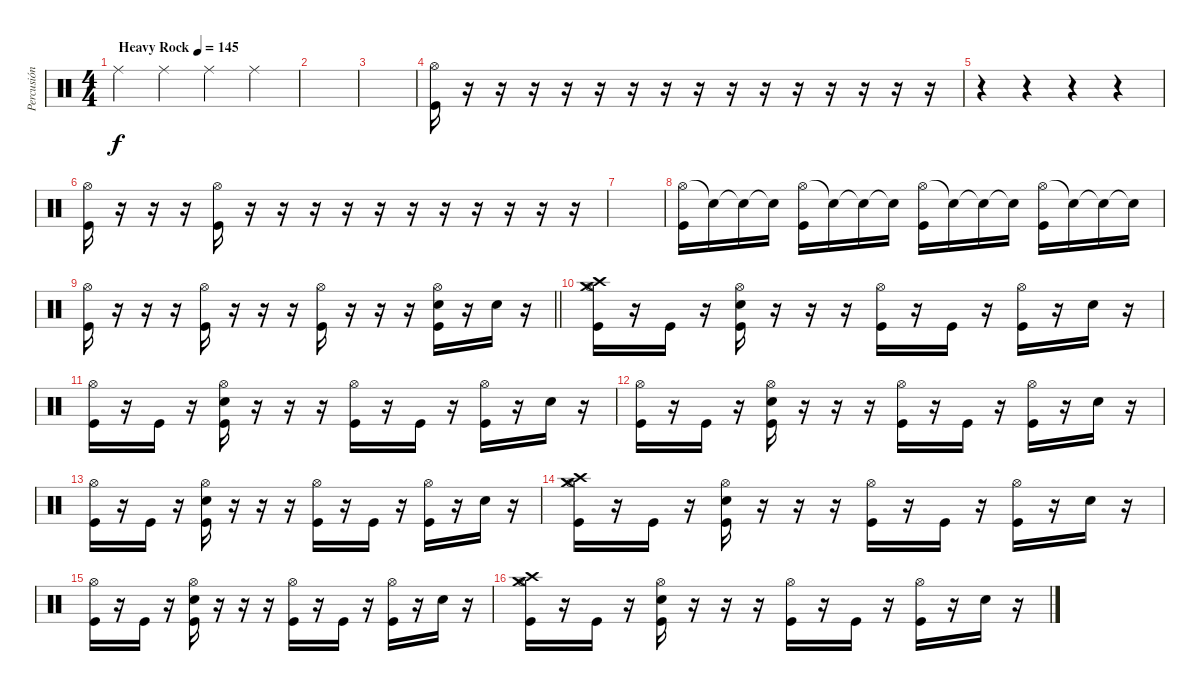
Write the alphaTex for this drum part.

\track ("Percusión" "Percusión") {instrument percussion}
\staff {score}
\articulation defaults
\ts (4 4)
\tempo (145 "Heavy Rock")
\clef neutral
\ks c "Ride (middle)".4{dy f} "Ride (middle)".4 "Ride (middle)".4 "Ride (middle)".4
|
|
|
("Hi-Hat (open)" "Kick (hit)").16 r.16 r.16 r.16 r.16 r.16 r.16 r.16 r.16 r.16 r.16 r.16 r.16 r.16 r.16 r.16 |
r.4 r.4 r.4 r.4 |
("Hi-Hat (open)" "Kick (hit)").16 r.16 r.16 r.16 ("Hi-Hat (open)" "Kick (hit)").16 r.16 r.16 r.16 r.16 r.16 r.16 r.16 r.16 r.16 r.16 r.16 |
|
("Hi-Hat (open)" "Kick (hit)").16 "Snare (hit)"{t}.16 "Snare (hit)"{t}.16 "Snare (hit)"{t}.16 ("Hi-Hat (open)" "Kick (hit)").16 "Snare (hit)"{t}.16 "Snare (hit)"{t}.16 "Snare (hit)"{t}.16 ("Hi-Hat (open)" "Kick (hit)").16 "Snare (hit)"{t}.16 "Snare (hit)"{t}.16 "Snare (hit)"{t}.16 ("Hi-Hat (open)" "Kick (hit)").16 "Snare (hit)"{t}.16 "Snare (hit)"{t}.16 "Snare (hit)"{t}.16 |
\barLineRight lightlight
("Hi-Hat (open)" "Kick (hit)").16 r.16 r.16 r.16 ("Hi-Hat (open)" "Kick (hit)").16 r.16 r.16 r.16 ("Hi-Hat (open)" "Kick (hit)").16 r.16 r.16 r.16 ("Hi-Hat (open)" "Kick (hit)" "Electric Snare (hit)").16 r.16 "Electric Snare (hit)".16 r.16 |
\section ("" "")
("Hi-Hat (open)" "Crash high (hit)" "Kick (hit)" "Crash medium (hit)").16 r.16 "Kick (hit)".16 r.16 ("Hi-Hat (open)" "Kick (hit)" "Electric Snare (hit)").16 r.16 r.16 r.16 ("Hi-Hat (open)" "Kick (hit)").16 r.16 "Kick (hit)".16 r.16 ("Hi-Hat (open)" "Kick (hit)").16 r.16 "Electric Snare (hit)".16 r.16 |
("Hi-Hat (open)" "Kick (hit)").16 r.16 "Kick (hit)".16 r.16 ("Hi-Hat (open)" "Kick (hit)" "Electric Snare (hit)").16 r.16 r.16 r.16 ("Hi-Hat (open)" "Kick (hit)").16 r.16 "Kick (hit)".16 r.16 ("Hi-Hat (open)" "Kick (hit)").16 r.16 "Electric Snare (hit)".16 r.16 |
("Hi-Hat (open)" "Kick (hit)").16 r.16 "Kick (hit)".16 r.16 ("Hi-Hat (open)" "Kick (hit)" "Electric Snare (hit)").16 r.16 r.16 r.16 ("Hi-Hat (open)" "Kick (hit)").16 r.16 "Kick (hit)".16 r.16 ("Hi-Hat (open)" "Kick (hit)").16 r.16 "Electric Snare (hit)".16 r.16 |
("Hi-Hat (open)" "Kick (hit)").16 r.16 "Kick (hit)".16 r.16 ("Hi-Hat (open)" "Kick (hit)" "Electric Snare (hit)").16 r.16 r.16 r.16 ("Hi-Hat (open)" "Kick (hit)").16 r.16 "Kick (hit)".16 r.16 ("Hi-Hat (open)" "Kick (hit)").16 r.16 "Electric Snare (hit)".16 r.16 |
("Hi-Hat (open)" "Crash high (hit)" "Kick (hit)" "Crash medium (hit)").16 r.16 "Kick (hit)".16 r.16 ("Hi-Hat (open)" "Kick (hit)" "Electric Snare (hit)").16 r.16 r.16 r.16 ("Hi-Hat (open)" "Kick (hit)").16 r.16 "Kick (hit)".16 r.16 ("Hi-Hat (open)" "Kick (hit)").16 r.16 "Electric Snare (hit)".16 r.16 |
("Hi-Hat (open)" "Kick (hit)").16 r.16 "Kick (hit)".16 r.16 ("Hi-Hat (open)" "Kick (hit)" "Electric Snare (hit)").16 r.16 r.16 r.16 ("Hi-Hat (open)" "Kick (hit)").16 r.16 "Kick (hit)".16 r.16 ("Hi-Hat (open)" "Kick (hit)").16 r.16 "Electric Snare (hit)".16 r.16 |
("Hi-Hat (open)" "Crash high (hit)" "Kick (hit)" "Crash medium (hit)").16 r.16 "Kick (hit)".16 r.16 ("Hi-Hat (open)" "Kick (hit)" "Electric Snare (hit)").16 r.16 r.16 r.16 ("Hi-Hat (open)" "Kick (hit)").16 r.16 "Kick (hit)".16 r.16 ("Hi-Hat (open)" "Kick (hit)").16 r.16 "Electric Snare (hit)".16 r.16
